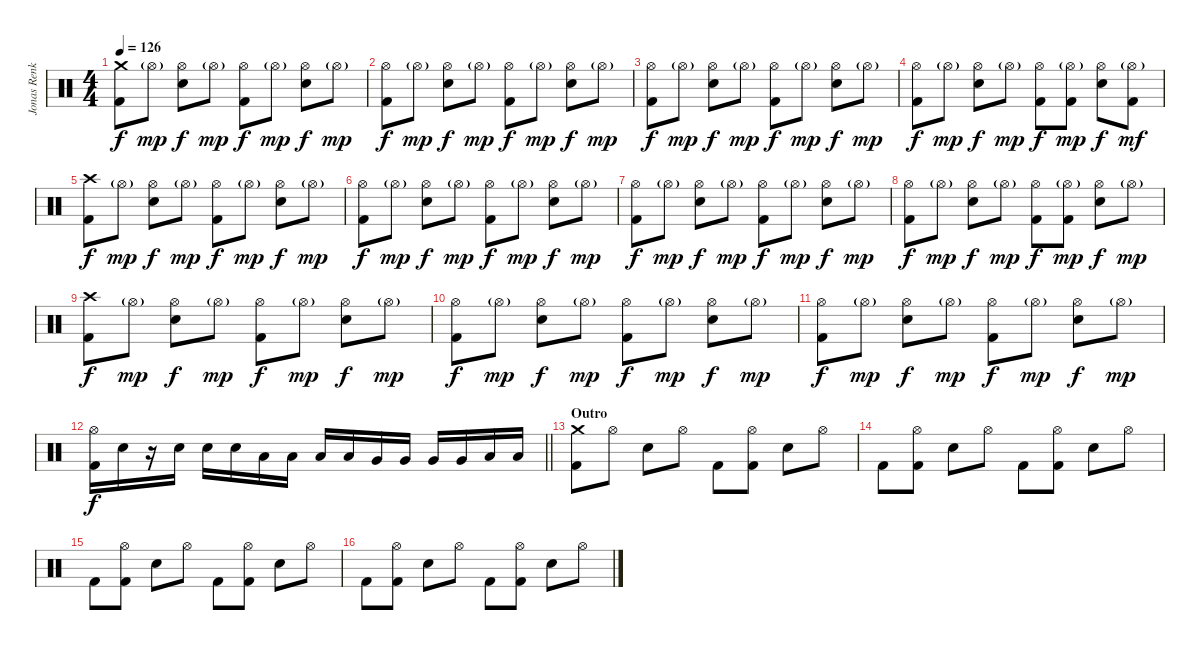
\track ("Jonas Renkse" "Jonas Renk") {instrument percussion}
\staff {score}
\articulation defaults
\ts (4 4)
\tempo 126
\clef neutral
\ks c
("Crash medium (hit)" "Kick (hit) 2").8{dy f} "Hi-Hat (open)"{g}.8{dy mp} ("Hi-Hat (open)" "Electric Snare (hit)").8{dy f} "Hi-Hat (open)"{g}.8{dy mp} ("Hi-Hat (open)" "Kick (hit) 2").8{dy f} "Hi-Hat (open)"{g}.8{dy mp} ("Hi-Hat (open)" "Electric Snare (hit)").8{dy f} "Hi-Hat (open)"{g}.8{dy mp} |
("Hi-Hat (open)" "Kick (hit) 2").8{dy f} "Hi-Hat (open)"{g}.8{dy mp} ("Hi-Hat (open)" "Electric Snare (hit)").8{dy f} "Hi-Hat (open)"{g}.8{dy mp} ("Hi-Hat (open)" "Kick (hit) 2").8{dy f} "Hi-Hat (open)"{g}.8{dy mp} ("Hi-Hat (open)" "Electric Snare (hit)").8{dy f} "Hi-Hat (open)"{g}.8{dy mp} |
("Hi-Hat (open)" "Kick (hit) 2").8{dy f} "Hi-Hat (open)"{g}.8{dy mp} ("Hi-Hat (open)" "Electric Snare (hit)").8{dy f} "Hi-Hat (open)"{g}.8{dy mp} ("Hi-Hat (open)" "Kick (hit) 2").8{dy f} "Hi-Hat (open)"{g}.8{dy mp} ("Hi-Hat (open)" "Electric Snare (hit)").8{dy f} "Hi-Hat (open)"{g}.8{dy mp} |
("Hi-Hat (open)" "Kick (hit) 2").8{dy f} "Hi-Hat (open)"{g}.8{dy mp} ("Hi-Hat (open)" "Electric Snare (hit)").8{dy f} "Hi-Hat (open)"{g}.8{dy mp} ("Hi-Hat (open)" "Kick (hit) 2").8{dy f} ("Hi-Hat (open)"{g} "Kick (hit) 2").8{dy mp} ("Hi-Hat (open)" "Electric Snare (hit)").8{dy f} ("Hi-Hat (open)"{g} "Kick (hit) 2").8{dy mf} |
("Crash high (hit)" "Kick (hit) 2").8{dy f} "Hi-Hat (open)"{g}.8{dy mp} ("Hi-Hat (open)" "Electric Snare (hit)").8{dy f} "Hi-Hat (open)"{g}.8{dy mp} ("Hi-Hat (open)" "Kick (hit) 2").8{dy f} "Hi-Hat (open)"{g}.8{dy mp} ("Hi-Hat (open)" "Electric Snare (hit)").8{dy f} "Hi-Hat (open)"{g}.8{dy mp} |
("Hi-Hat (open)" "Kick (hit) 2").8{dy f} "Hi-Hat (open)"{g}.8{dy mp} ("Hi-Hat (open)" "Electric Snare (hit)").8{dy f} "Hi-Hat (open)"{g}.8{dy mp} ("Hi-Hat (open)" "Kick (hit) 2").8{dy f} "Hi-Hat (open)"{g}.8{dy mp} ("Hi-Hat (open)" "Electric Snare (hit)").8{dy f} "Hi-Hat (open)"{g}.8{dy mp} |
("Hi-Hat (open)" "Kick (hit) 2").8{dy f} "Hi-Hat (open)"{g}.8{dy mp} ("Hi-Hat (open)" "Electric Snare (hit)").8{dy f} "Hi-Hat (open)"{g}.8{dy mp} ("Hi-Hat (open)" "Kick (hit) 2").8{dy f} "Hi-Hat (open)"{g}.8{dy mp} ("Hi-Hat (open)" "Electric Snare (hit)").8{dy f} "Hi-Hat (open)"{g}.8{dy mp} |
("Hi-Hat (open)" "Kick (hit) 2").8{dy f} "Hi-Hat (open)"{g}.8{dy mp} ("Hi-Hat (open)" "Electric Snare (hit)").8{dy f} "Hi-Hat (open)"{g}.8{dy mp} ("Hi-Hat (open)" "Kick (hit) 2").8{dy f} ("Hi-Hat (open)"{g} "Kick (hit) 2").8{dy mp} ("Hi-Hat (open)" "Electric Snare (hit)").8{dy f} "Hi-Hat (open)"{g}.8{dy mp} |
("Crash high (hit)" "Kick (hit) 2").8{dy f} "Hi-Hat (open)"{g}.8{dy mp} ("Hi-Hat (open)" "Electric Snare (hit)").8{dy f} "Hi-Hat (open)"{g}.8{dy mp} ("Hi-Hat (open)" "Kick (hit) 2").8{dy f} "Hi-Hat (open)"{g}.8{dy mp} ("Hi-Hat (open)" "Electric Snare (hit)").8{dy f} "Hi-Hat (open)"{g}.8{dy mp} |
("Hi-Hat (open)" "Kick (hit) 2").8{dy f} "Hi-Hat (open)"{g}.8{dy mp} ("Hi-Hat (open)" "Electric Snare (hit)").8{dy f} "Hi-Hat (open)"{g}.8{dy mp} ("Hi-Hat (open)" "Kick (hit) 2").8{dy f} "Hi-Hat (open)"{g}.8{dy mp} ("Hi-Hat (open)" "Electric Snare (hit)").8{dy f} "Hi-Hat (open)"{g}.8{dy mp} |
("Hi-Hat (open)" "Kick (hit) 2").8{dy f} "Hi-Hat (open)"{g}.8{dy mp} ("Hi-Hat (open)" "Electric Snare (hit)").8{dy f} "Hi-Hat (open)"{g}.8{dy mp} ("Hi-Hat (open)" "Kick (hit) 2").8{dy f} "Hi-Hat (open)"{g}.8{dy mp} ("Hi-Hat (open)" "Electric Snare (hit)").8{dy f} "Hi-Hat (open)"{g}.8{dy mp} |
\barLineRight lightlight
("Hi-Hat (open)" "Kick (hit) 2").16{dy f} "Electric Snare (hit)".16 r.16 "Electric Snare (hit)".16 "Electric Snare (hit)".16 "Electric Snare (hit)".16 "Low Tom (hit)".16 "Low Tom (hit)".16 "Low Tom (hit)".16 "Low Tom (hit)".16 "Very Low Tom (hit)".16 "Very Low Tom (hit)".16 "Very Low Tom (hit)".16 "Very Low Tom (hit)".16 "Low Floor Tom (hit)".16 "Low Floor Tom (hit)".16 |
\section ("" "Outro")
("Crash medium (hit)" "Kick (hit) 2").8 "Hi-Hat (open)".8 "Electric Snare (hit)".8 "Hi-Hat (open)".8 "Kick (hit) 2".8 ("Hi-Hat (open)" "Kick (hit) 2").8 "Electric Snare (hit)".8 "Hi-Hat (open)".8 |
"Kick (hit) 2".8 ("Hi-Hat (open)" "Kick (hit) 2").8 "Electric Snare (hit)".8 "Hi-Hat (open)".8 "Kick (hit) 2".8 ("Hi-Hat (open)" "Kick (hit) 2").8 "Electric Snare (hit)".8 "Hi-Hat (open)".8 |
"Kick (hit) 2".8 ("Hi-Hat (open)" "Kick (hit) 2").8 "Electric Snare (hit)".8 "Hi-Hat (open)".8 "Kick (hit) 2".8 ("Hi-Hat (open)" "Kick (hit) 2").8 "Electric Snare (hit)".8 "Hi-Hat (open)".8 |
"Kick (hit) 2".8 ("Hi-Hat (open)" "Kick (hit) 2").8 "Electric Snare (hit)".8 "Hi-Hat (open)".8 "Kick (hit) 2".8 ("Hi-Hat (open)" "Kick (hit) 2").8 "Electric Snare (hit)".8 "Hi-Hat (open)".8
